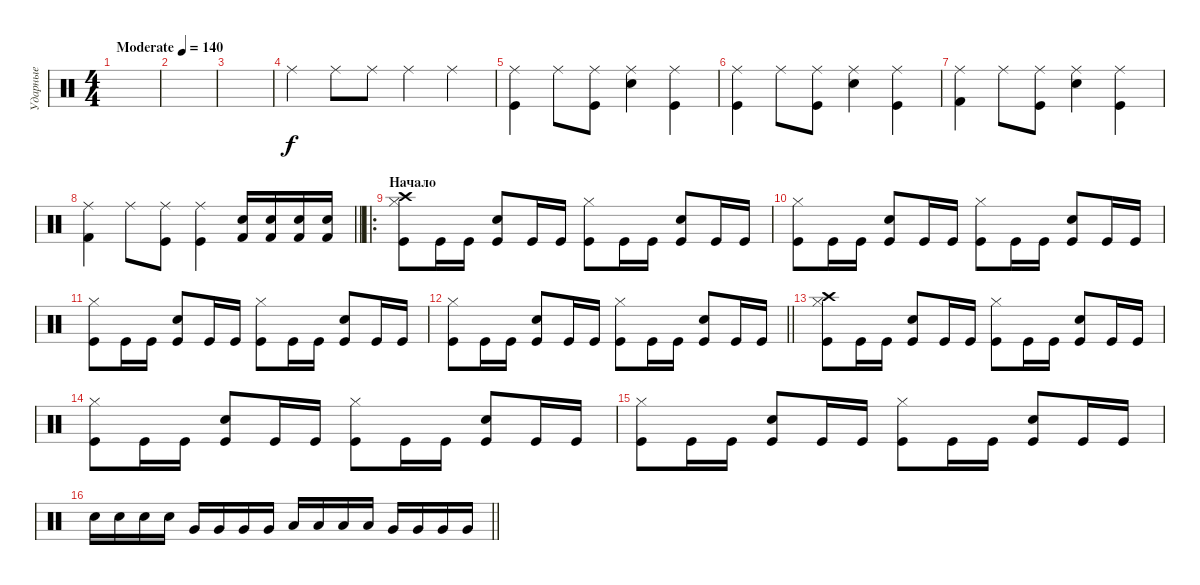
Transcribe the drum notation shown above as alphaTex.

\track ("Ударные" "Ударные") {instrument percussion}
\staff {score}
\articulation defaults
\ts (4 4)
\tempo (140 "Moderate")
\clef neutral
\ks c
|
|
|
"Ride (middle)".4 "Ride (middle)".8 "Ride (middle)".8 "Ride (middle)".4 "Ride (middle)".4 |
("Kick (hit)" "Ride (middle)").4 "Ride (middle)".8 ("Kick (hit)" "Ride (middle)").8 ("Snare (hit) 2" "Ride (middle)").4 ("Kick (hit)" "Ride (middle)").4 |
("Kick (hit)" "Ride (middle)").4 "Ride (middle)".8 ("Kick (hit)" "Ride (middle)").8 ("Snare (hit) 2" "Ride (middle)").4 ("Kick (hit)" "Ride (middle)").4 |
("Kick (hit) 2" "Ride (middle)").4 "Ride (middle)".8 ("Kick (hit)" "Ride (middle)").8 ("Snare (hit) 2" "Ride (middle)").4 ("Kick (hit)" "Ride (middle)").4 |
\barLineRight lightlight
("Kick (hit) 2" "Ride (middle)").4 "Ride (middle)".8 ("Kick (hit)" "Ride (middle)").8 ("Kick (hit)" "Ride (middle)").4 ("Snare (hit) 2" "Kick (hit) 2").16 ("Snare (hit) 2" "Kick (hit) 2").16 ("Snare (hit) 2" "Kick (hit) 2").16 ("Snare (hit) 2" "Kick (hit) 2").16 |
\ro
\section ("" "Начало")
("Crash high (hit)" "Hi-Hat (closed)" "Kick (hit)").8 "Kick (hit)".16 "Kick (hit)".16 ("Snare (hit) 2" "Kick (hit)").8 "Kick (hit)".16 "Kick (hit)".16 ("Hi-Hat (closed)" "Kick (hit)").8 "Kick (hit)".16 "Kick (hit)".16 ("Snare (hit) 2" "Kick (hit)").8 "Kick (hit)".16 "Kick (hit)".16 |
("Hi-Hat (closed)" "Kick (hit)").8 "Kick (hit)".16 "Kick (hit)".16 ("Snare (hit) 2" "Kick (hit)").8 "Kick (hit)".16 "Kick (hit)".16 ("Hi-Hat (closed)" "Kick (hit)").8 "Kick (hit)".16 "Kick (hit)".16 ("Snare (hit) 2" "Kick (hit)").8 "Kick (hit)".16 "Kick (hit)".16 |
("Hi-Hat (closed)" "Kick (hit)").8 "Kick (hit)".16 "Kick (hit)".16 ("Snare (hit) 2" "Kick (hit)").8 "Kick (hit)".16 "Kick (hit)".16 ("Hi-Hat (closed)" "Kick (hit)").8 "Kick (hit)".16 "Kick (hit)".16 ("Snare (hit) 2" "Kick (hit)").8 "Kick (hit)".16 "Kick (hit)".16 |
\barLineRight lightlight
("Hi-Hat (closed)" "Kick (hit)").8 "Kick (hit)".16 "Kick (hit)".16 ("Snare (hit) 2" "Kick (hit)").8 "Kick (hit)".16 "Kick (hit)".16 ("Hi-Hat (closed)" "Kick (hit)").8 "Kick (hit)".16 "Kick (hit)".16 ("Snare (hit) 2" "Kick (hit)").8 "Kick (hit)".16 "Kick (hit)".16 |
("Crash high (hit)" "Hi-Hat (closed)" "Kick (hit)").8 "Kick (hit)".16 "Kick (hit)".16 ("Snare (hit) 2" "Kick (hit)").8 "Kick (hit)".16 "Kick (hit)".16 ("Hi-Hat (closed)" "Kick (hit)").8 "Kick (hit)".16 "Kick (hit)".16 ("Snare (hit) 2" "Kick (hit)").8 "Kick (hit)".16 "Kick (hit)".16 |
("Hi-Hat (closed)" "Kick (hit)").8 "Kick (hit)".16 "Kick (hit)".16 ("Snare (hit) 2" "Kick (hit)").8 "Kick (hit)".16 "Kick (hit)".16 ("Hi-Hat (closed)" "Kick (hit)").8 "Kick (hit)".16 "Kick (hit)".16 ("Snare (hit) 2" "Kick (hit)").8 "Kick (hit)".16 "Kick (hit)".16 |
("Hi-Hat (closed)" "Kick (hit)").8 "Kick (hit)".16 "Kick (hit)".16 ("Snare (hit) 2" "Kick (hit)").8 "Kick (hit)".16 "Kick (hit)".16 ("Hi-Hat (closed)" "Kick (hit)").8 "Kick (hit)".16 "Kick (hit)".16 ("Snare (hit) 2" "Kick (hit)").8 "Kick (hit)".16 "Kick (hit)".16 |
\barLineRight lightlight "Snare (hit) 2".16 "Snare (hit) 2".16 "Snare (hit) 2".16 "Snare (hit) 2".16 "Very Low Tom (hit)".16 "Very Low Tom (hit)".16 "Very Low Tom (hit)".16 "Very Low Tom (hit)".16 "Low Tom (hit)".16 "Low Tom (hit)".16 "Low Tom (hit)".16 "Low Tom (hit)".16 "Very Low Tom (hit)".16 "Very Low Tom (hit)".16 "Very Low Tom (hit)".16 "Very Low Tom (hit)".16
